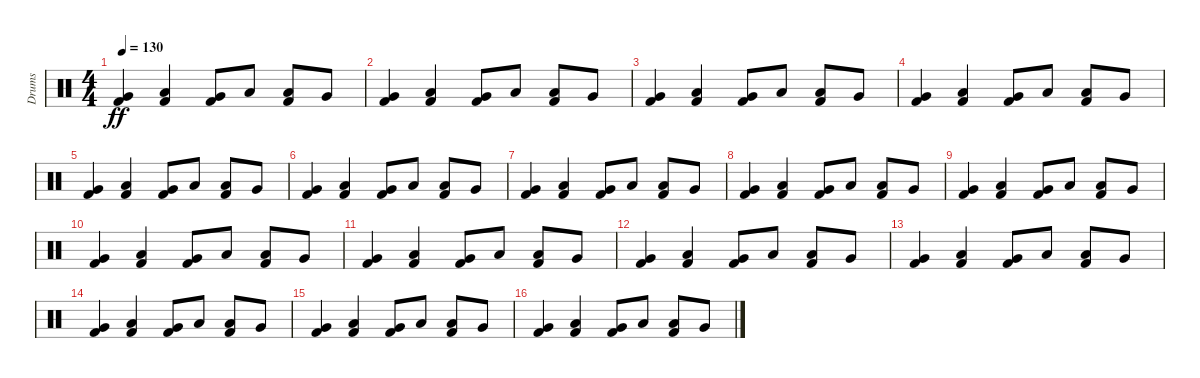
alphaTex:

\track ("Drums" "Drums") {instrument percussion}
\staff {score}
\articulation defaults
\ts (4 4)
\tempo 130
\clef neutral
\ks c
("Very Low Tom (hit)" "Kick (hit) 2").4{dy ff} ("Low Tom (hit)" "Kick (hit) 2").4 ("Very Low Tom (hit)" "Kick (hit) 2").8 "Low Floor Tom (hit)".8 ("Low Tom (hit)" "Kick (hit) 2").8 "Very Low Tom (hit)".8 |
("Very Low Tom (hit)" "Kick (hit) 2").4 ("Low Tom (hit)" "Kick (hit) 2").4 ("Very Low Tom (hit)" "Kick (hit) 2").8 "Low Floor Tom (hit)".8 ("Low Tom (hit)" "Kick (hit) 2").8 "Very Low Tom (hit)".8 |
("Very Low Tom (hit)" "Kick (hit) 2").4 ("Low Tom (hit)" "Kick (hit) 2").4 ("Very Low Tom (hit)" "Kick (hit) 2").8 "Low Floor Tom (hit)".8 ("Low Tom (hit)" "Kick (hit) 2").8 "Very Low Tom (hit)".8 |
("Very Low Tom (hit)" "Kick (hit) 2").4 ("Low Tom (hit)" "Kick (hit) 2").4 ("Very Low Tom (hit)" "Kick (hit) 2").8 "Low Floor Tom (hit)".8 ("Low Tom (hit)" "Kick (hit) 2").8 "Very Low Tom (hit)".8 |
("Very Low Tom (hit)" "Kick (hit) 2").4 ("Low Tom (hit)" "Kick (hit) 2").4 ("Very Low Tom (hit)" "Kick (hit) 2").8 "Low Floor Tom (hit)".8 ("Low Tom (hit)" "Kick (hit) 2").8 "Very Low Tom (hit)".8 |
("Very Low Tom (hit)" "Kick (hit) 2").4 ("Low Tom (hit)" "Kick (hit) 2").4 ("Very Low Tom (hit)" "Kick (hit) 2").8 "Low Floor Tom (hit)".8 ("Low Tom (hit)" "Kick (hit) 2").8 "Very Low Tom (hit)".8 |
("Very Low Tom (hit)" "Kick (hit) 2").4 ("Low Tom (hit)" "Kick (hit) 2").4 ("Very Low Tom (hit)" "Kick (hit) 2").8 "Low Floor Tom (hit)".8 ("Low Tom (hit)" "Kick (hit) 2").8 "Very Low Tom (hit)".8 |
("Very Low Tom (hit)" "Kick (hit) 2").4 ("Low Tom (hit)" "Kick (hit) 2").4 ("Very Low Tom (hit)" "Kick (hit) 2").8 "Low Floor Tom (hit)".8 ("Low Tom (hit)" "Kick (hit) 2").8 "Very Low Tom (hit)".8 |
("Very Low Tom (hit)" "Kick (hit) 2").4 ("Low Tom (hit)" "Kick (hit) 2").4 ("Very Low Tom (hit)" "Kick (hit) 2").8 "Low Floor Tom (hit)".8 ("Low Tom (hit)" "Kick (hit) 2").8 "Very Low Tom (hit)".8 |
("Very Low Tom (hit)" "Kick (hit) 2").4 ("Low Tom (hit)" "Kick (hit) 2").4 ("Very Low Tom (hit)" "Kick (hit) 2").8 "Low Floor Tom (hit)".8 ("Low Tom (hit)" "Kick (hit) 2").8 "Very Low Tom (hit)".8 |
("Very Low Tom (hit)" "Kick (hit) 2").4 ("Low Tom (hit)" "Kick (hit) 2").4 ("Very Low Tom (hit)" "Kick (hit) 2").8 "Low Floor Tom (hit)".8 ("Low Tom (hit)" "Kick (hit) 2").8 "Very Low Tom (hit)".8 |
("Very Low Tom (hit)" "Kick (hit) 2").4 ("Low Tom (hit)" "Kick (hit) 2").4 ("Very Low Tom (hit)" "Kick (hit) 2").8 "Low Floor Tom (hit)".8 ("Low Tom (hit)" "Kick (hit) 2").8 "Very Low Tom (hit)".8 |
("Very Low Tom (hit)" "Kick (hit) 2").4 ("Low Tom (hit)" "Kick (hit) 2").4 ("Very Low Tom (hit)" "Kick (hit) 2").8 "Low Floor Tom (hit)".8 ("Low Tom (hit)" "Kick (hit) 2").8 "Very Low Tom (hit)".8 |
("Very Low Tom (hit)" "Kick (hit) 2").4 ("Low Tom (hit)" "Kick (hit) 2").4 ("Very Low Tom (hit)" "Kick (hit) 2").8 "Low Floor Tom (hit)".8 ("Low Tom (hit)" "Kick (hit) 2").8 "Very Low Tom (hit)".8 |
("Very Low Tom (hit)" "Kick (hit) 2").4 ("Low Tom (hit)" "Kick (hit) 2").4 ("Very Low Tom (hit)" "Kick (hit) 2").8 "Low Floor Tom (hit)".8 ("Low Tom (hit)" "Kick (hit) 2").8 "Very Low Tom (hit)".8 |
("Very Low Tom (hit)" "Kick (hit) 2").4 ("Low Tom (hit)" "Kick (hit) 2").4 ("Very Low Tom (hit)" "Kick (hit) 2").8 "Low Floor Tom (hit)".8 ("Low Tom (hit)" "Kick (hit) 2").8 "Very Low Tom (hit)".8
